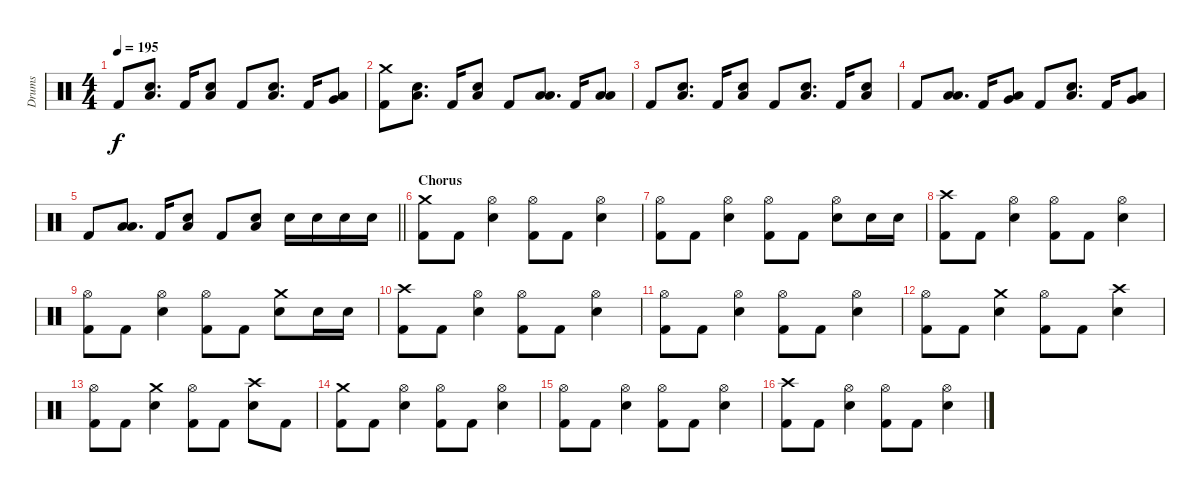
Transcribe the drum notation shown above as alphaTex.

\track ("Drums" "Drums") {instrument percussion}
\staff {score}
\articulation defaults
\ts (4 4)
\tempo 195
\clef neutral
\ks c "Kick (hit) 2".8{dy f}
("Low Floor Tom (hit)" "Electric Snare (hit)").8{d} "Kick (hit) 2".16 ("Low Floor Tom (hit)" "Electric Snare (hit)").8 "Kick (hit) 2".8 ("Low Floor Tom (hit)" "Electric Snare (hit)").8{d} "Kick (hit) 2".16 ("Low Floor Tom (hit)" "Very Low Tom (hit)").8 |
("Crash medium (hit)" "Kick (hit) 2").8 ("Low Floor Tom (hit)" "Electric Snare (hit)").8{d} "Kick (hit) 2".16 ("Low Floor Tom (hit)" "Electric Snare (hit)").8 "Kick (hit) 2".8 ("Low Floor Tom (hit)" "Low Tom (hit)").8{d} "Kick (hit) 2".16 ("Low Floor Tom (hit)" "Low Tom (hit)").8 |
"Kick (hit) 2".8 ("Low Floor Tom (hit)" "Electric Snare (hit)").8{d} "Kick (hit) 2".16 ("Low Floor Tom (hit)" "Electric Snare (hit)").8 "Kick (hit) 2".8 ("Low Floor Tom (hit)" "Electric Snare (hit)").8{d} "Kick (hit) 2".16 ("Low Floor Tom (hit)" "Electric Snare (hit)").8 |
"Kick (hit) 2".8 ("Low Floor Tom (hit)" "Low Tom (hit)").8{d} "Kick (hit) 2".16 ("Low Floor Tom (hit)" "Very Low Tom (hit)").8 "Kick (hit) 2".8 ("Low Floor Tom (hit)" "Electric Snare (hit)").8{d} "Kick (hit) 2".16 ("Low Floor Tom (hit)" "Very Low Tom (hit)").8 |
\barLineRight lightlight "Kick (hit) 2".8
("Low Floor Tom (hit)" "Low Tom (hit)").8{d} "Kick (hit) 2".16 ("Low Floor Tom (hit)" "Electric Snare (hit)").8 "Kick (hit) 2".8 ("Low Floor Tom (hit)" "Electric Snare (hit)").8 "Electric Snare (hit)".16 "Electric Snare (hit)".16 "Electric Snare (hit)".16 "Electric Snare (hit)".16 |
\section ("" "Chorus")
("Crash medium (hit)" "Kick (hit) 2").8 "Kick (hit) 2".8 ("Hi-Hat (open)" "Electric Snare (hit)").4 ("Hi-Hat (open)" "Kick (hit) 2").8 "Kick (hit) 2".8 ("Hi-Hat (open)" "Electric Snare (hit)").4 |
("Hi-Hat (open)" "Kick (hit) 2").8 "Kick (hit) 2".8 ("Hi-Hat (open)" "Electric Snare (hit)").4 ("Hi-Hat (open)" "Kick (hit) 2").8 "Kick (hit) 2".8 ("Hi-Hat (open)" "Electric Snare (hit)").8 "Electric Snare (hit)".16 "Electric Snare (hit)".16 |
("Crash high (hit)" "Kick (hit) 2").8 "Kick (hit) 2".8 ("Hi-Hat (open)" "Electric Snare (hit)").4 ("Hi-Hat (open)" "Kick (hit) 2").8 "Kick (hit) 2".8 ("Hi-Hat (open)" "Electric Snare (hit)").4 |
("Hi-Hat (open)" "Kick (hit) 2").8 "Kick (hit) 2".8 ("Hi-Hat (open)" "Electric Snare (hit)").4 ("Hi-Hat (open)" "Kick (hit) 2").8 "Kick (hit) 2".8 ("Crash medium (hit)" "Electric Snare (hit)").8 "Electric Snare (hit)".16 "Electric Snare (hit)".16 |
("Crash high (hit)" "Kick (hit) 2").8 "Kick (hit) 2".8 ("Hi-Hat (open)" "Electric Snare (hit)").4 ("Hi-Hat (open)" "Kick (hit) 2").8 "Kick (hit) 2".8 ("Hi-Hat (open)" "Electric Snare (hit)").4 |
("Hi-Hat (open)" "Kick (hit) 2").8 "Kick (hit) 2".8 ("Hi-Hat (open)" "Electric Snare (hit)").4 ("Hi-Hat (open)" "Kick (hit) 2").8 "Kick (hit) 2".8 ("Hi-Hat (open)" "Electric Snare (hit)").4 |
("Hi-Hat (open)" "Kick (hit) 2").8 "Kick (hit) 2".8 ("Crash medium (hit)" "Electric Snare (hit)").4 ("Hi-Hat (open)" "Kick (hit) 2").8 "Kick (hit) 2".8 ("Crash high (hit)" "Electric Snare (hit)").4 |
("Hi-Hat (open)" "Kick (hit) 2").8 "Kick (hit) 2".8 ("Crash medium (hit)" "Electric Snare (hit)").4 ("Hi-Hat (open)" "Kick (hit) 2").8 "Kick (hit) 2".8 ("Crash high (hit)" "Electric Snare (hit)").8 "Kick (hit) 2".8 |
("Crash medium (hit)" "Kick (hit) 2").8 "Kick (hit) 2".8 ("Hi-Hat (open)" "Electric Snare (hit)").4 ("Hi-Hat (open)" "Kick (hit) 2").8 "Kick (hit) 2".8 ("Hi-Hat (open)" "Electric Snare (hit)").4 |
("Hi-Hat (open)" "Kick (hit) 2").8 "Kick (hit) 2".8 ("Hi-Hat (open)" "Electric Snare (hit)").4 ("Hi-Hat (open)" "Kick (hit) 2").8 "Kick (hit) 2".8 ("Hi-Hat (open)" "Electric Snare (hit)").4 |
("Crash high (hit)" "Kick (hit) 2").8 "Kick (hit) 2".8 ("Hi-Hat (open)" "Electric Snare (hit)").4 ("Hi-Hat (open)" "Kick (hit) 2").8 "Kick (hit) 2".8 ("Hi-Hat (open)" "Electric Snare (hit)").4
